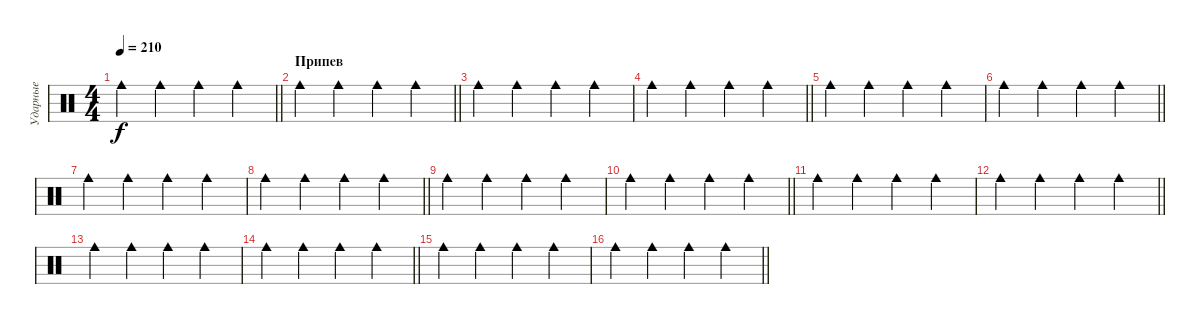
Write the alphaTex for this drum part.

\track ("Ударные" "Ударные") {mute instrument percussion}
\staff {score}
\articulation defaults
\ts (4 4)
\tempo 210
\clef neutral
\barLineRight lightlight
\ks c "Cowbell medium (hit)".4{dy f} "Cowbell medium (hit)".4 "Cowbell medium (hit)".4 "Cowbell medium (hit)".4
|
\section ("" "Припев")
\barLineRight lightlight "Cowbell medium (hit)".4 "Cowbell medium (hit)".4 "Cowbell medium (hit)".4 "Cowbell medium (hit)".4
|
"Cowbell medium (hit)".4 "Cowbell medium (hit)".4 "Cowbell medium (hit)".4 "Cowbell medium (hit)".4 |
\barLineRight lightlight "Cowbell medium (hit)".4 "Cowbell medium (hit)".4 "Cowbell medium (hit)".4 "Cowbell medium (hit)".4
|
"Cowbell medium (hit)".4 "Cowbell medium (hit)".4 "Cowbell medium (hit)".4 "Cowbell medium (hit)".4 |
\barLineRight lightlight "Cowbell medium (hit)".4 "Cowbell medium (hit)".4 "Cowbell medium (hit)".4 "Cowbell medium (hit)".4
|
"Cowbell medium (hit)".4 "Cowbell medium (hit)".4 "Cowbell medium (hit)".4 "Cowbell medium (hit)".4 |
\barLineRight lightlight "Cowbell medium (hit)".4 "Cowbell medium (hit)".4 "Cowbell medium (hit)".4 "Cowbell medium (hit)".4
|
"Cowbell medium (hit)".4 "Cowbell medium (hit)".4 "Cowbell medium (hit)".4 "Cowbell medium (hit)".4 |
\barLineRight lightlight "Cowbell medium (hit)".4 "Cowbell medium (hit)".4 "Cowbell medium (hit)".4 "Cowbell medium (hit)".4
|
"Cowbell medium (hit)".4 "Cowbell medium (hit)".4 "Cowbell medium (hit)".4 "Cowbell medium (hit)".4 |
\barLineRight lightlight "Cowbell medium (hit)".4 "Cowbell medium (hit)".4 "Cowbell medium (hit)".4 "Cowbell medium (hit)".4
|
"Cowbell medium (hit)".4 "Cowbell medium (hit)".4 "Cowbell medium (hit)".4 "Cowbell medium (hit)".4 |
\barLineRight lightlight "Cowbell medium (hit)".4 "Cowbell medium (hit)".4 "Cowbell medium (hit)".4 "Cowbell medium (hit)".4
|
"Cowbell medium (hit)".4 "Cowbell medium (hit)".4 "Cowbell medium (hit)".4 "Cowbell medium (hit)".4 |
\barLineRight lightlight "Cowbell medium (hit)".4 "Cowbell medium (hit)".4 "Cowbell medium (hit)".4 "Cowbell medium (hit)".4
